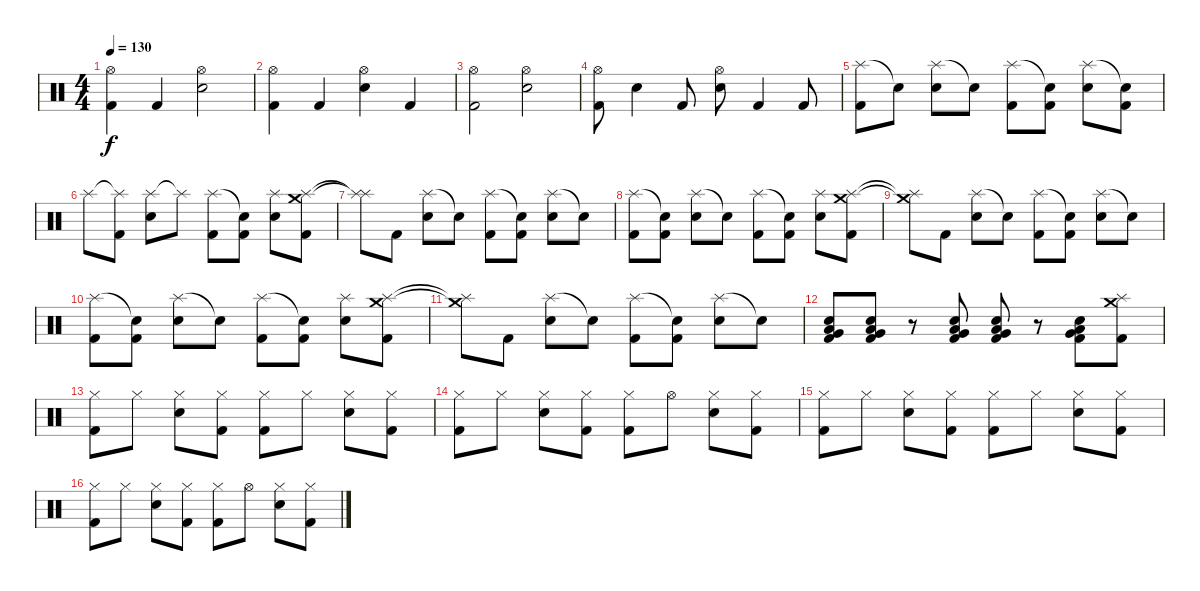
\track (" " " ") {solo instrument percussion}
\staff {score}
\articulation defaults
\ts (4 4)
\tempo 130
\clef neutral
\ks c
("Hi-Hat (open)" "Kick (hit) 2").4{dy f} "Kick (hit) 2".4 ("Hi-Hat (open)" "Electric Snare (hit)").2 |
("Hi-Hat (open)" "Kick (hit) 2").4 "Kick (hit) 2".4 ("Hi-Hat (open)" "Electric Snare (hit)").4 "Kick (hit) 2".4 |
("Hi-Hat (open)" "Kick (hit) 2").2 ("Hi-Hat (open)" "Electric Snare (hit)").2 |
("Hi-Hat (open)" "Kick (hit) 2").8 "Electric Snare (hit)".4 "Kick (hit) 2".8 ("Hi-Hat (open)" "Electric Snare (hit)").8 "Kick (hit) 2".4 "Kick (hit) 2".8 |
("Splash (hit)" "Kick (hit) 2").8 "Snare (hit)"{t}.8 ("Splash (hit)" "Electric Snare (hit)").8 "Snare (hit)"{t}.8 ("Splash (hit)" "Kick (hit) 2").8 ("Snare (hit)"{t} "Kick (hit) 2").8 ("Splash (hit)" "Electric Snare (hit)").8 ("Snare (hit)"{t} "Kick (hit) 2").8 |
"Splash (hit)".8 ("Splash (hit)"{t} "Kick (hit) 2").8 ("Splash (hit)" "Electric Snare (hit)").8 "Splash (hit)"{t}.8 ("Splash (hit)" "Kick (hit) 2").8 ("Snare (hit)"{t} "Kick (hit) 2").8 ("Splash (hit)" "Electric Snare (hit)").8 ("Crash medium (hit)" "Splash (hit)" "Kick (hit) 2").8 |
("Splash (hit)"{t} "Splash (hit)"{t}).8 "Kick (hit) 2".8 ("Splash (hit)" "Electric Snare (hit)").8 "Snare (hit)"{t}.8 ("Splash (hit)" "Kick (hit) 2").8 ("Snare (hit)"{t} "Kick (hit) 2").8 ("Splash (hit)" "Electric Snare (hit)").8 "Snare (hit)"{t}.8 |
("Splash (hit)" "Kick (hit) 2").8 ("Snare (hit)"{t} "Kick (hit) 2").8 ("Splash (hit)" "Electric Snare (hit)").8 "Snare (hit)"{t}.8 ("Splash (hit)" "Kick (hit) 2").8 ("Snare (hit)"{t} "Kick (hit) 2").8 ("Splash (hit)" "Electric Snare (hit)").8 ("Crash medium (hit)" "Splash (hit)" "Kick (hit) 2").8 |
("Crash medium (hit)"{t} "Splash (hit)"{t}).8 "Kick (hit) 2".8 ("Splash (hit)" "Electric Snare (hit)").8 "Snare (hit)"{t}.8 ("Splash (hit)" "Kick (hit) 2").8 ("Snare (hit)"{t} "Kick (hit) 2").8 ("Splash (hit)" "Electric Snare (hit)").8 "Snare (hit)"{t}.8 |
("Splash (hit)" "Kick (hit) 2").8 ("Snare (hit)"{t} "Kick (hit) 2").8 ("Splash (hit)" "Electric Snare (hit)").8 "Snare (hit)"{t}.8 ("Splash (hit)" "Kick (hit) 2").8 ("Snare (hit)"{t} "Kick (hit) 2").8 ("Splash (hit)" "Electric Snare (hit)").8 ("Crash medium (hit)" "Splash (hit)" "Kick (hit) 2").8 |
("Crash medium (hit)"{t} "Splash (hit)"{t}).8 "Kick (hit) 2".8 ("Splash (hit)" "Electric Snare (hit)").8 "Snare (hit)"{t}.8 ("Splash (hit)" "Kick (hit) 2").8 ("Snare (hit)"{t} "Kick (hit) 2").8 ("Splash (hit)" "Electric Snare (hit)").8 "Snare (hit)"{t}.8 |
("Electric Snare (hit)" "Low Floor Tom (hit)" "Very Low Tom (hit)" "Kick (hit) 2").8 ("Electric Snare (hit)" "Low Floor Tom (hit)" "Very Low Tom (hit)" "Kick (hit) 2").8 r.8 ("Electric Snare (hit)" "Low Floor Tom (hit)" "Very Low Tom (hit)" "Kick (hit) 2").8 ("Electric Snare (hit)" "Low Floor Tom (hit)" "Very Low Tom (hit)" "Kick (hit) 2").8 r.8 ("Electric Snare (hit)" "Low Floor Tom (hit)" "Very Low Tom (hit)" "Kick (hit) 2").8 ("Splash (hit)" "Crash medium (hit)" "Kick (hit) 2").8 |
("Hi-Hat (closed)" "Kick (hit) 2").8 "Hi-Hat (closed)".8 ("Hi-Hat (closed)" "Electric Snare (hit)").8 ("Hi-Hat (closed)" "Kick (hit) 2").8 ("Hi-Hat (closed)" "Kick (hit) 2").8 "Hi-Hat (closed)".8 ("Hi-Hat (closed)" "Electric Snare (hit)").8 ("Hi-Hat (closed)" "Kick (hit) 2").8 |
("Hi-Hat (closed)" "Kick (hit) 2").8 "Hi-Hat (closed)".8 ("Hi-Hat (closed)" "Electric Snare (hit)").8 ("Hi-Hat (closed)" "Kick (hit) 2").8 ("Hi-Hat (closed)" "Kick (hit) 2").8 "Hi-Hat (open)".8 ("Hi-Hat (closed)" "Electric Snare (hit)").8 ("Hi-Hat (closed)" "Kick (hit) 2").8 |
("Hi-Hat (closed)" "Kick (hit) 2").8 "Hi-Hat (closed)".8 ("Hi-Hat (closed)" "Electric Snare (hit)").8 ("Hi-Hat (closed)" "Kick (hit) 2").8 ("Hi-Hat (closed)" "Kick (hit) 2").8 "Hi-Hat (closed)".8 ("Hi-Hat (closed)" "Electric Snare (hit)").8 ("Hi-Hat (closed)" "Kick (hit) 2").8 |
("Hi-Hat (closed)" "Kick (hit) 2").8 "Hi-Hat (closed)".8 ("Hi-Hat (closed)" "Electric Snare (hit)").8 ("Hi-Hat (closed)" "Kick (hit) 2").8 ("Hi-Hat (closed)" "Kick (hit) 2").8 "Hi-Hat (open)".8 ("Hi-Hat (closed)" "Electric Snare (hit)").8 ("Hi-Hat (closed)" "Kick (hit) 2").8
